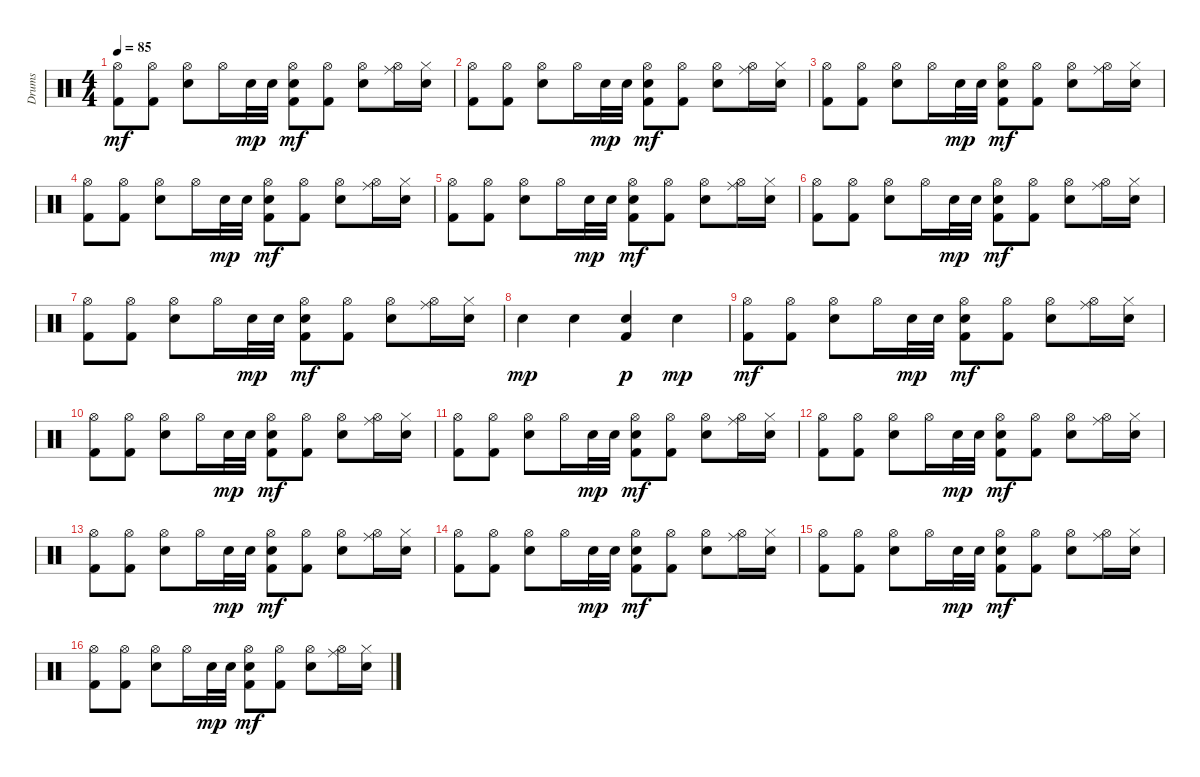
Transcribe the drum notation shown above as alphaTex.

\track ("Drums" "Drums") {instrument percussion}
\staff {score}
\articulation defaults
\ts (4 4)
\tempo 85
\clef neutral
\ks c
("Hi-Hat (open)" "Kick (hit) 2").8{dy mf} ("Hi-Hat (open)" "Kick (hit) 2").8 ("Hi-Hat (open)" "Electric Snare (hit)").8 "Hi-Hat (open)".16 "Electric Snare (hit)".32{dy mp} "Electric Snare (hit)".32 ("Hi-Hat (open)" "Electric Snare (hit)" "Kick (hit) 2").8{dy mf} ("Hi-Hat (open)" "Kick (hit) 2").8 ("Hi-Hat (open)" "Electric Snare (hit)").8 ("Ride (middle)" "Hi-Hat (open)").16 ("Hi-Hat (closed)" "Electric Snare (hit)").16 |
("Hi-Hat (open)" "Kick (hit) 2").8 ("Hi-Hat (open)" "Kick (hit) 2").8 ("Hi-Hat (open)" "Electric Snare (hit)").8 "Hi-Hat (open)".16 "Electric Snare (hit)".32{dy mp} "Electric Snare (hit)".32 ("Hi-Hat (open)" "Electric Snare (hit)" "Kick (hit) 2").8{dy mf} ("Hi-Hat (open)" "Kick (hit) 2").8 ("Hi-Hat (open)" "Electric Snare (hit)").8 ("Ride (middle)" "Hi-Hat (open)").16 ("Hi-Hat (closed)" "Electric Snare (hit)").16 |
("Hi-Hat (open)" "Kick (hit) 2").8 ("Hi-Hat (open)" "Kick (hit) 2").8 ("Hi-Hat (open)" "Electric Snare (hit)").8 "Hi-Hat (open)".16 "Electric Snare (hit)".32{dy mp} "Electric Snare (hit)".32 ("Hi-Hat (open)" "Electric Snare (hit)" "Kick (hit) 2").8{dy mf} ("Hi-Hat (open)" "Kick (hit) 2").8 ("Hi-Hat (open)" "Electric Snare (hit)").8 ("Ride (middle)" "Hi-Hat (open)").16 ("Hi-Hat (closed)" "Electric Snare (hit)").16 |
("Hi-Hat (open)" "Kick (hit) 2").8 ("Hi-Hat (open)" "Kick (hit) 2").8 ("Hi-Hat (open)" "Electric Snare (hit)").8 "Hi-Hat (open)".16 "Electric Snare (hit)".32{dy mp} "Electric Snare (hit)".32 ("Hi-Hat (open)" "Electric Snare (hit)" "Kick (hit) 2").8{dy mf} ("Hi-Hat (open)" "Kick (hit) 2").8 ("Hi-Hat (open)" "Electric Snare (hit)").8 ("Ride (middle)" "Hi-Hat (open)").16 ("Hi-Hat (closed)" "Electric Snare (hit)").16 |
("Hi-Hat (open)" "Kick (hit) 2").8 ("Hi-Hat (open)" "Kick (hit) 2").8 ("Hi-Hat (open)" "Electric Snare (hit)").8 "Hi-Hat (open)".16 "Electric Snare (hit)".32{dy mp} "Electric Snare (hit)".32 ("Hi-Hat (open)" "Electric Snare (hit)" "Kick (hit) 2").8{dy mf} ("Hi-Hat (open)" "Kick (hit) 2").8 ("Hi-Hat (open)" "Electric Snare (hit)").8 ("Ride (middle)" "Hi-Hat (open)").16 ("Hi-Hat (closed)" "Electric Snare (hit)").16 |
("Hi-Hat (open)" "Kick (hit) 2").8 ("Hi-Hat (open)" "Kick (hit) 2").8 ("Hi-Hat (open)" "Electric Snare (hit)").8 "Hi-Hat (open)".16 "Electric Snare (hit)".32{dy mp} "Electric Snare (hit)".32 ("Hi-Hat (open)" "Electric Snare (hit)" "Kick (hit) 2").8{dy mf} ("Hi-Hat (open)" "Kick (hit) 2").8 ("Hi-Hat (open)" "Electric Snare (hit)").8 ("Ride (middle)" "Hi-Hat (open)").16 ("Hi-Hat (closed)" "Electric Snare (hit)").16 |
("Hi-Hat (open)" "Kick (hit) 2").8 ("Hi-Hat (open)" "Kick (hit) 2").8 ("Hi-Hat (open)" "Electric Snare (hit)").8 "Hi-Hat (open)".16 "Electric Snare (hit)".32{dy mp} "Electric Snare (hit)".32 ("Hi-Hat (open)" "Electric Snare (hit)" "Kick (hit) 2").8{dy mf} ("Hi-Hat (open)" "Kick (hit) 2").8 ("Hi-Hat (open)" "Electric Snare (hit)").8 ("Ride (middle)" "Hi-Hat (open)").16 ("Hi-Hat (closed)" "Electric Snare (hit)").16 |
"Electric Snare (hit)".4{dy mp} "Electric Snare (hit)".4 ("Electric Snare (hit)" "Kick (hit) 2").4{dy p} "Electric Snare (hit)".4{dy mp} |
("Hi-Hat (open)" "Kick (hit) 2").8{dy mf} ("Hi-Hat (open)" "Kick (hit) 2").8 ("Hi-Hat (open)" "Electric Snare (hit)").8 "Hi-Hat (open)".16 "Electric Snare (hit)".32{dy mp} "Electric Snare (hit)".32 ("Hi-Hat (open)" "Electric Snare (hit)" "Kick (hit) 2").8{dy mf} ("Hi-Hat (open)" "Kick (hit) 2").8 ("Hi-Hat (open)" "Electric Snare (hit)").8 ("Ride (middle)" "Hi-Hat (open)").16 ("Hi-Hat (closed)" "Electric Snare (hit)").16 |
("Hi-Hat (open)" "Kick (hit) 2").8 ("Hi-Hat (open)" "Kick (hit) 2").8 ("Hi-Hat (open)" "Electric Snare (hit)").8 "Hi-Hat (open)".16 "Electric Snare (hit)".32{dy mp} "Electric Snare (hit)".32 ("Hi-Hat (open)" "Electric Snare (hit)" "Kick (hit) 2").8{dy mf} ("Hi-Hat (open)" "Kick (hit) 2").8 ("Hi-Hat (open)" "Electric Snare (hit)").8 ("Ride (middle)" "Hi-Hat (open)").16 ("Hi-Hat (closed)" "Electric Snare (hit)").16 |
("Hi-Hat (open)" "Kick (hit) 2").8 ("Hi-Hat (open)" "Kick (hit) 2").8 ("Hi-Hat (open)" "Electric Snare (hit)").8 "Hi-Hat (open)".16 "Electric Snare (hit)".32{dy mp} "Electric Snare (hit)".32 ("Hi-Hat (open)" "Electric Snare (hit)" "Kick (hit) 2").8{dy mf} ("Hi-Hat (open)" "Kick (hit) 2").8 ("Hi-Hat (open)" "Electric Snare (hit)").8 ("Ride (middle)" "Hi-Hat (open)").16 ("Hi-Hat (closed)" "Electric Snare (hit)").16 |
("Hi-Hat (open)" "Kick (hit) 2").8 ("Hi-Hat (open)" "Kick (hit) 2").8 ("Hi-Hat (open)" "Electric Snare (hit)").8 "Hi-Hat (open)".16 "Electric Snare (hit)".32{dy mp} "Electric Snare (hit)".32 ("Hi-Hat (open)" "Electric Snare (hit)" "Kick (hit) 2").8{dy mf} ("Hi-Hat (open)" "Kick (hit) 2").8 ("Hi-Hat (open)" "Electric Snare (hit)").8 ("Ride (middle)" "Hi-Hat (open)").16 ("Hi-Hat (closed)" "Electric Snare (hit)").16 |
("Hi-Hat (open)" "Kick (hit) 2").8 ("Hi-Hat (open)" "Kick (hit) 2").8 ("Hi-Hat (open)" "Electric Snare (hit)").8 "Hi-Hat (open)".16 "Electric Snare (hit)".32{dy mp} "Electric Snare (hit)".32 ("Hi-Hat (open)" "Electric Snare (hit)" "Kick (hit) 2").8{dy mf} ("Hi-Hat (open)" "Kick (hit) 2").8 ("Hi-Hat (open)" "Electric Snare (hit)").8 ("Ride (middle)" "Hi-Hat (open)").16 ("Hi-Hat (closed)" "Electric Snare (hit)").16 |
("Hi-Hat (open)" "Kick (hit) 2").8 ("Hi-Hat (open)" "Kick (hit) 2").8 ("Hi-Hat (open)" "Electric Snare (hit)").8 "Hi-Hat (open)".16 "Electric Snare (hit)".32{dy mp} "Electric Snare (hit)".32 ("Hi-Hat (open)" "Electric Snare (hit)" "Kick (hit) 2").8{dy mf} ("Hi-Hat (open)" "Kick (hit) 2").8 ("Hi-Hat (open)" "Electric Snare (hit)").8 ("Ride (middle)" "Hi-Hat (open)").16 ("Hi-Hat (closed)" "Electric Snare (hit)").16 |
("Hi-Hat (open)" "Kick (hit) 2").8 ("Hi-Hat (open)" "Kick (hit) 2").8 ("Hi-Hat (open)" "Electric Snare (hit)").8 "Hi-Hat (open)".16 "Electric Snare (hit)".32{dy mp} "Electric Snare (hit)".32 ("Hi-Hat (open)" "Electric Snare (hit)" "Kick (hit) 2").8{dy mf} ("Hi-Hat (open)" "Kick (hit) 2").8 ("Hi-Hat (open)" "Electric Snare (hit)").8 ("Ride (middle)" "Hi-Hat (open)").16 ("Hi-Hat (closed)" "Electric Snare (hit)").16 |
("Hi-Hat (open)" "Kick (hit) 2").8 ("Hi-Hat (open)" "Kick (hit) 2").8 ("Hi-Hat (open)" "Electric Snare (hit)").8 "Hi-Hat (open)".16 "Electric Snare (hit)".32{dy mp} "Electric Snare (hit)".32 ("Hi-Hat (open)" "Electric Snare (hit)" "Kick (hit) 2").8{dy mf} ("Hi-Hat (open)" "Kick (hit) 2").8 ("Hi-Hat (open)" "Electric Snare (hit)").8 ("Ride (middle)" "Hi-Hat (open)").16 ("Hi-Hat (closed)" "Electric Snare (hit)").16
